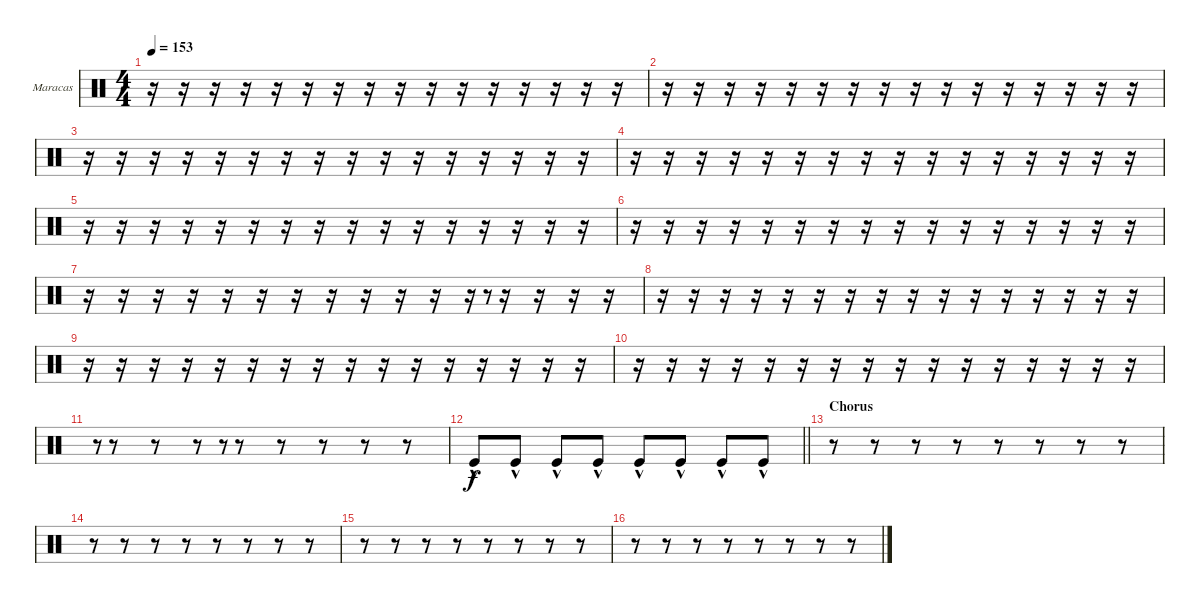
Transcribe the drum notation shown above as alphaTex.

\bracketExtendMode groupsimilarinstruments
\firstSystemTrackNameOrientation horizontal
\otherSystemsTrackNameOrientation horizontal
\track ("Maracas" "Maracas") {solo instrument percussion}
\staff {score}
\articulation defaults
\ts (4 4)
\tempo 153
\clef neutral
\ks c
r.16{dy f} r.16 r.16 r.16 r.16 r.16 r.16 r.16 r.16 r.16 r.16 r.16 r.16 r.16 r.16 r.16 |
r.16 r.16 r.16 r.16 r.16 r.16 r.16 r.16 r.16 r.16 r.16 r.16 r.16 r.16 r.16 r.16 |
r.16 r.16 r.16 r.16 r.16 r.16 r.16 r.16 r.16 r.16 r.16 r.16 r.16 r.16 r.16 r.16 |
r.16 r.16 r.16 r.16 r.16 r.16 r.16 r.16 r.16 r.16 r.16 r.16 r.16 r.16 r.16 r.16 |
r.16 r.16 r.16 r.16 r.16 r.16 r.16 r.16 r.16 r.16 r.16 r.16 r.16 r.16 r.16 r.16 |
r.16 r.16 r.16 r.16 r.16 r.16 r.16 r.16 r.16 r.16 r.16 r.16 r.16 r.16 r.16 r.16 |
r.16 r.16 r.16 r.16 r.16 r.16 r.16 r.16 r.16 r.16 r.16 r.16 r.8{gr} r.16 r.16 r.16 r.16 |
r.16 r.16 r.16 r.16 r.16 r.16 r.16 r.16 r.16 r.16 r.16 r.16 r.16 r.16 r.16 r.16 |
r.16 r.16 r.16 r.16 r.16 r.16 r.16 r.16 r.16 r.16 r.16 r.16 r.16 r.16 r.16 r.16 |
r.16 r.16 r.16 r.16 r.16 r.16 r.16 r.16 r.16 r.16 r.16 r.16 r.16 r.16 r.16 r.16 |
r.8{gr} r.8 r.8 r.8 r.8{gr} r.8 r.8 r.8 r.8 r.8 |
\barLineRight lightlight "Kick (hit)"{hac}.8 "Kick (hit)"{hac}.8 "Kick (hit)"{hac}.8 "Kick (hit)"{hac}.8 "Kick (hit)"{hac}.8 "Kick (hit)"{hac}.8 "Kick (hit)"{hac}.8 "Kick (hit)"{hac}.8
|
\section ("" "Chorus")
r.8 r.8 r.8 r.8 r.8 r.8 r.8 r.8 |
r.8 r.8 r.8 r.8 r.8 r.8 r.8 r.8 |
r.8 r.8 r.8 r.8 r.8 r.8 r.8 r.8 |
r.8 r.8 r.8 r.8 r.8 r.8 r.8 r.8
